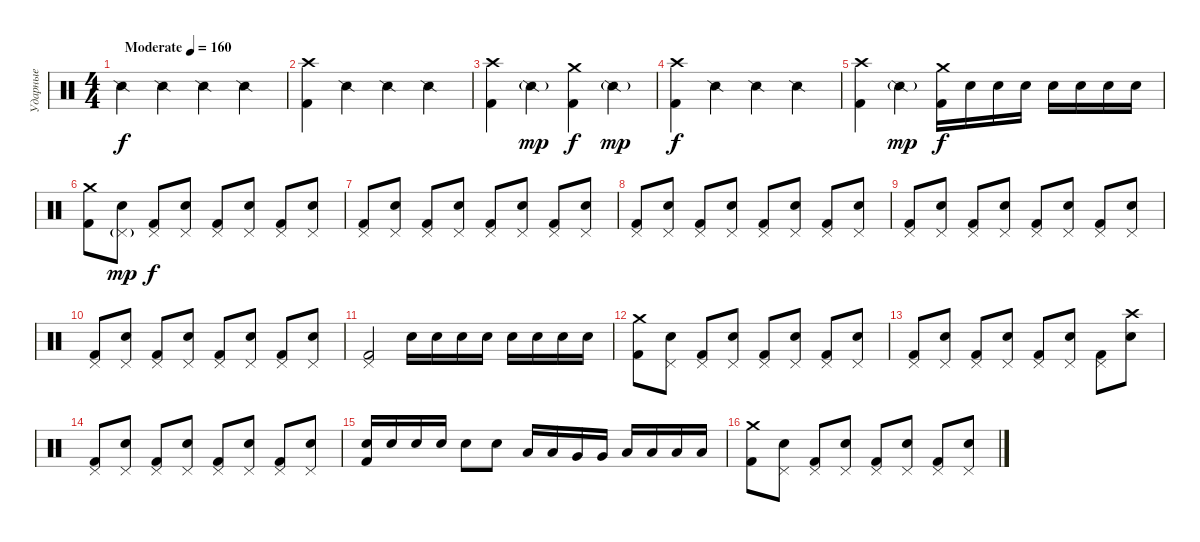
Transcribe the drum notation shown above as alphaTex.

\track ("Ударные" "Ударные") {instrument percussion}
\staff {score}
\articulation defaults
\ts (4 4)
\tempo (160 "Moderate")
\clef neutral
\ks c "Snare (side stick) 2".4{dy f} "Snare (side stick) 2".4 "Snare (side stick) 2".4 "Snare (side stick) 2".4
|
("Kick (hit) 2" "Crash high (hit)").4 "Snare (side stick) 2".4 "Snare (side stick) 2".4 "Snare (side stick) 2".4 |
("Kick (hit) 2" "Crash high (hit)").4 "Snare (side stick) 2"{g}.4{dy mp} ("Kick (hit) 2" "Crash medium (hit)").4{dy f} "Snare (side stick) 2"{g}.4{dy mp} |
("Kick (hit) 2" "Crash high (hit)").4{dy f} "Snare (side stick) 2".4 "Snare (side stick) 2".4 "Snare (side stick) 2".4 |
("Kick (hit) 2" "Crash high (hit)").4 "Snare (side stick) 2"{g}.4{dy mp} ("Crash medium (hit)" "Kick (hit) 2").16{dy f} "Electric Snare (hit)".16 "Electric Snare (hit)".16 "Electric Snare (hit)".16 "Electric Snare (hit)".16 "Electric Snare (hit)".16 "Electric Snare (hit)".16 "Electric Snare (hit)".16 |
("Kick (hit) 2" "Crash medium (hit)").8 ("Electric Snare (hit)" "Pedal Hi-Hat (hit)"{g}).8{dy mp} ("Kick (hit) 2" "Pedal Hi-Hat (hit)").8{dy f} ("Electric Snare (hit)" "Pedal Hi-Hat (hit)").8 ("Kick (hit) 2" "Pedal Hi-Hat (hit)").8 ("Electric Snare (hit)" "Pedal Hi-Hat (hit)").8 ("Kick (hit) 2" "Pedal Hi-Hat (hit)").8 ("Electric Snare (hit)" "Pedal Hi-Hat (hit)").8 |
("Kick (hit) 2" "Pedal Hi-Hat (hit)").8 ("Electric Snare (hit)" "Pedal Hi-Hat (hit)").8 ("Kick (hit) 2" "Pedal Hi-Hat (hit)").8 ("Electric Snare (hit)" "Pedal Hi-Hat (hit)").8 ("Kick (hit) 2" "Pedal Hi-Hat (hit)").8 ("Electric Snare (hit)" "Pedal Hi-Hat (hit)").8 ("Kick (hit) 2" "Pedal Hi-Hat (hit)").8 ("Electric Snare (hit)" "Pedal Hi-Hat (hit)").8 |
("Kick (hit) 2" "Pedal Hi-Hat (hit)").8 ("Electric Snare (hit)" "Pedal Hi-Hat (hit)").8 ("Kick (hit) 2" "Pedal Hi-Hat (hit)").8 ("Electric Snare (hit)" "Pedal Hi-Hat (hit)").8 ("Kick (hit) 2" "Pedal Hi-Hat (hit)").8 ("Electric Snare (hit)" "Pedal Hi-Hat (hit)").8 ("Kick (hit) 2" "Pedal Hi-Hat (hit)").8 ("Electric Snare (hit)" "Pedal Hi-Hat (hit)").8 |
("Kick (hit) 2" "Pedal Hi-Hat (hit)").8 ("Electric Snare (hit)" "Pedal Hi-Hat (hit)").8 ("Kick (hit) 2" "Pedal Hi-Hat (hit)").8 ("Electric Snare (hit)" "Pedal Hi-Hat (hit)").8 ("Kick (hit) 2" "Pedal Hi-Hat (hit)").8 ("Electric Snare (hit)" "Pedal Hi-Hat (hit)").8 ("Kick (hit) 2" "Pedal Hi-Hat (hit)").8 ("Electric Snare (hit)" "Pedal Hi-Hat (hit)").8 |
("Kick (hit) 2" "Pedal Hi-Hat (hit)").8 ("Electric Snare (hit)" "Pedal Hi-Hat (hit)").8 ("Kick (hit) 2" "Pedal Hi-Hat (hit)").8 ("Electric Snare (hit)" "Pedal Hi-Hat (hit)").8 ("Kick (hit) 2" "Pedal Hi-Hat (hit)").8 ("Electric Snare (hit)" "Pedal Hi-Hat (hit)").8 ("Kick (hit) 2" "Pedal Hi-Hat (hit)").8 ("Electric Snare (hit)" "Pedal Hi-Hat (hit)").8 |
("Kick (hit) 2" "Pedal Hi-Hat (hit)").2 "Electric Snare (hit)".16 "Electric Snare (hit)".16 "Electric Snare (hit)".16 "Electric Snare (hit)".16 "Electric Snare (hit)".16 "Electric Snare (hit)".16 "Electric Snare (hit)".16 "Electric Snare (hit)".16 |
("Kick (hit) 2" "Crash medium (hit)").8 ("Electric Snare (hit)" "Pedal Hi-Hat (hit)").8 ("Kick (hit) 2" "Pedal Hi-Hat (hit)").8 ("Electric Snare (hit)" "Pedal Hi-Hat (hit)").8 ("Kick (hit) 2" "Pedal Hi-Hat (hit)").8 ("Electric Snare (hit)" "Pedal Hi-Hat (hit)").8 ("Kick (hit) 2" "Pedal Hi-Hat (hit)").8 ("Electric Snare (hit)" "Pedal Hi-Hat (hit)").8 |
("Kick (hit) 2" "Pedal Hi-Hat (hit)").8 ("Electric Snare (hit)" "Pedal Hi-Hat (hit)").8 ("Kick (hit) 2" "Pedal Hi-Hat (hit)").8 ("Electric Snare (hit)" "Pedal Hi-Hat (hit)").8 ("Kick (hit) 2" "Pedal Hi-Hat (hit)").8 ("Electric Snare (hit)" "Pedal Hi-Hat (hit)").8 ("Kick (hit) 2" "Pedal Hi-Hat (hit)").8 ("Electric Snare (hit)" "Crash high (hit)").8 |
("Kick (hit) 2" "Pedal Hi-Hat (hit)").8 ("Electric Snare (hit)" "Pedal Hi-Hat (hit)").8 ("Kick (hit) 2" "Pedal Hi-Hat (hit)").8 ("Electric Snare (hit)" "Pedal Hi-Hat (hit)").8 ("Kick (hit) 2" "Pedal Hi-Hat (hit)").8 ("Electric Snare (hit)" "Pedal Hi-Hat (hit)").8 ("Kick (hit) 2" "Pedal Hi-Hat (hit)").8 ("Electric Snare (hit)" "Pedal Hi-Hat (hit)").8 |
("Electric Snare (hit)" "Kick (hit) 2").16 "Electric Snare (hit)".16 "Electric Snare (hit)".16 "Electric Snare (hit)".16 "Electric Snare (hit)".8 "Electric Snare (hit)".8 "Low Tom (hit)".16 "Low Tom (hit)".16 "Very Low Tom (hit)".16 "Very Low Tom (hit)".16 "Low Floor Tom (hit)".16 "Low Floor Tom (hit)".16 "Low Floor Tom (hit)".16 "Low Floor Tom (hit)".16 |
("Kick (hit) 2" "Crash medium (hit)").8 ("Electric Snare (hit)" "Pedal Hi-Hat (hit)").8 ("Kick (hit) 2" "Pedal Hi-Hat (hit)").8 ("Electric Snare (hit)" "Pedal Hi-Hat (hit)").8 ("Kick (hit) 2" "Pedal Hi-Hat (hit)").8 ("Electric Snare (hit)" "Pedal Hi-Hat (hit)").8 ("Kick (hit) 2" "Pedal Hi-Hat (hit)").8 ("Electric Snare (hit)" "Pedal Hi-Hat (hit)").8
